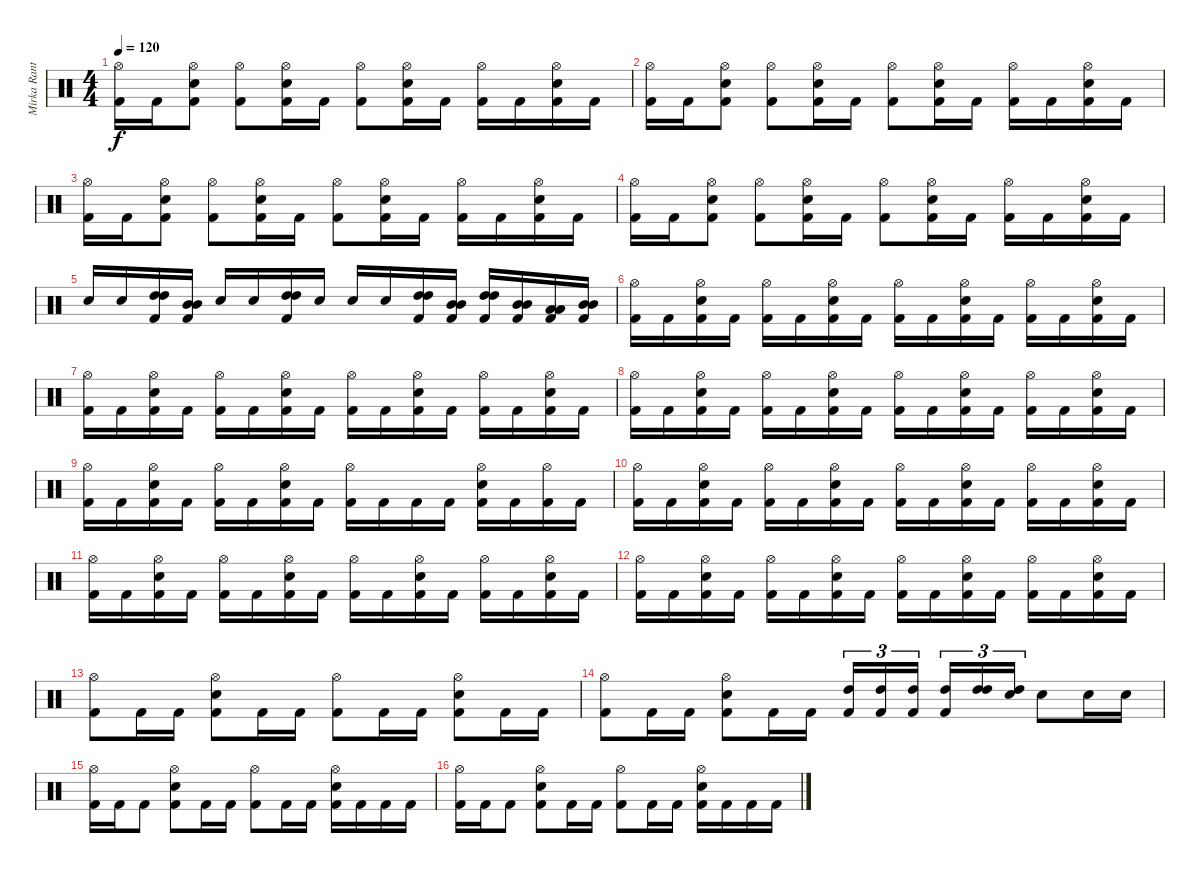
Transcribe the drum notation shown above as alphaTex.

\track ("Mirka Rantanen" "Mirka Rant") {instrument percussion}
\staff {score}
\articulation defaults
\ts (4 4)
\tempo 120
\clef neutral
\ks c
("Hi-Hat (open)" "Kick (hit) 2").16{dy f} "Kick (hit) 2".16 ("Snare (hit) 2" "Hi-Hat (open)" "Kick (hit) 2").8 ("Hi-Hat (open)" "Kick (hit) 2").8 ("Snare (hit) 2" "Hi-Hat (open)" "Kick (hit) 2").16 "Kick (hit) 2".16 ("Hi-Hat (open)" "Kick (hit) 2").8 ("Snare (hit) 2" "Hi-Hat (open)" "Kick (hit) 2").16 "Kick (hit) 2".16 ("Hi-Hat (open)" "Kick (hit) 2").16 "Kick (hit) 2".16 ("Snare (hit) 2" "Hi-Hat (open)" "Kick (hit) 2").16 "Kick (hit) 2".16 |
("Hi-Hat (open)" "Kick (hit) 2").16 "Kick (hit) 2".16 ("Snare (hit) 2" "Hi-Hat (open)" "Kick (hit) 2").8 ("Hi-Hat (open)" "Kick (hit) 2").8 ("Snare (hit) 2" "Hi-Hat (open)" "Kick (hit) 2").16 "Kick (hit) 2".16 ("Hi-Hat (open)" "Kick (hit) 2").8 ("Snare (hit) 2" "Hi-Hat (open)" "Kick (hit) 2").16 "Kick (hit) 2".16 ("Hi-Hat (open)" "Kick (hit) 2").16 "Kick (hit) 2".16 ("Snare (hit) 2" "Hi-Hat (open)" "Kick (hit) 2").16 "Kick (hit) 2".16 |
("Hi-Hat (open)" "Kick (hit) 2").16 "Kick (hit) 2".16 ("Snare (hit) 2" "Hi-Hat (open)" "Kick (hit) 2").8 ("Hi-Hat (open)" "Kick (hit) 2").8 ("Snare (hit) 2" "Hi-Hat (open)" "Kick (hit) 2").16 "Kick (hit) 2".16 ("Hi-Hat (open)" "Kick (hit) 2").8 ("Snare (hit) 2" "Hi-Hat (open)" "Kick (hit) 2").16 "Kick (hit) 2".16 ("Hi-Hat (open)" "Kick (hit) 2").16 "Kick (hit) 2".16 ("Snare (hit) 2" "Hi-Hat (open)" "Kick (hit) 2").16 "Kick (hit) 2".16 |
("Hi-Hat (open)" "Kick (hit) 2").16 "Kick (hit) 2".16 ("Snare (hit) 2" "Hi-Hat (open)" "Kick (hit) 2").8 ("Hi-Hat (open)" "Kick (hit) 2").8 ("Snare (hit) 2" "Hi-Hat (open)" "Kick (hit) 2").16 "Kick (hit) 2".16 ("Hi-Hat (open)" "Kick (hit) 2").8 ("Snare (hit) 2" "Hi-Hat (open)" "Kick (hit) 2").16 "Kick (hit) 2".16 ("Hi-Hat (open)" "Kick (hit) 2").16 "Kick (hit) 2".16 ("Snare (hit) 2" "Hi-Hat (open)" "Kick (hit) 2").16 "Kick (hit) 2".16 |
"Snare (hit) 2".16 "Snare (hit) 2".16 ("High Tom (hit)" "High Tom (hit)" "Kick (hit) 2").16 ("Mid Tom (hit)" "Mid Tom (hit)" "Kick (hit) 2").16 "Snare (hit) 2".16 "Snare (hit) 2".16 ("High Tom (hit)" "High Tom (hit)" "Kick (hit) 2").16 "Snare (hit) 2".16 "Snare (hit) 2".16 "Snare (hit) 2".16 ("High Tom (hit)" "High Tom (hit)" "Kick (hit) 2").16 ("Mid Tom (hit)" "Mid Tom (hit)" "Kick (hit) 2").16 ("High Tom (hit)" "High Tom (hit)" "Kick (hit) 2").16 ("Mid Tom (hit)" "Mid Tom (hit)" "Kick (hit) 2").16 ("Low Tom (hit)" "Low Tom (hit)" "Kick (hit) 2").16 ("Mid Tom (hit)" "Mid Tom (hit)" "Kick (hit) 2").16 |
("Hi-Hat (open)" "Kick (hit) 2").16 "Kick (hit) 2".16 ("Hi-Hat (open)" "Snare (hit) 2" "Kick (hit) 2").16 "Kick (hit) 2".16 ("Hi-Hat (open)" "Kick (hit) 2").16 "Kick (hit) 2".16 ("Hi-Hat (open)" "Snare (hit) 2" "Kick (hit) 2").16 "Kick (hit) 2".16 ("Hi-Hat (open)" "Kick (hit) 2").16 "Kick (hit) 2".16 ("Hi-Hat (open)" "Snare (hit) 2" "Kick (hit) 2").16 "Kick (hit) 2".16 ("Hi-Hat (open)" "Kick (hit) 2").16 "Kick (hit) 2".16 ("Hi-Hat (open)" "Snare (hit) 2" "Kick (hit) 2").16 "Kick (hit) 2".16 |
("Hi-Hat (open)" "Kick (hit) 2").16 "Kick (hit) 2".16 ("Hi-Hat (open)" "Snare (hit) 2" "Kick (hit) 2").16 "Kick (hit) 2".16 ("Hi-Hat (open)" "Kick (hit) 2").16 "Kick (hit) 2".16 ("Hi-Hat (open)" "Snare (hit) 2" "Kick (hit) 2").16 "Kick (hit) 2".16 ("Hi-Hat (open)" "Kick (hit) 2").16 "Kick (hit) 2".16 ("Hi-Hat (open)" "Snare (hit) 2" "Kick (hit) 2").16 "Kick (hit) 2".16 ("Hi-Hat (open)" "Kick (hit) 2").16 "Kick (hit) 2".16 ("Hi-Hat (open)" "Snare (hit) 2" "Kick (hit) 2").16 "Kick (hit) 2".16 |
("Hi-Hat (open)" "Kick (hit) 2").16 "Kick (hit) 2".16 ("Hi-Hat (open)" "Snare (hit) 2" "Kick (hit) 2").16 "Kick (hit) 2".16 ("Hi-Hat (open)" "Kick (hit) 2").16 "Kick (hit) 2".16 ("Hi-Hat (open)" "Snare (hit) 2" "Kick (hit) 2").16 "Kick (hit) 2".16 ("Hi-Hat (open)" "Kick (hit) 2").16 "Kick (hit) 2".16 ("Hi-Hat (open)" "Snare (hit) 2" "Kick (hit) 2").16 "Kick (hit) 2".16 ("Hi-Hat (open)" "Kick (hit) 2").16 "Kick (hit) 2".16 ("Hi-Hat (open)" "Snare (hit) 2" "Kick (hit) 2").16 "Kick (hit) 2".16 |
("Hi-Hat (open)" "Kick (hit) 2").16 "Kick (hit) 2".16 ("Hi-Hat (open)" "Snare (hit) 2" "Kick (hit) 2").16 "Kick (hit) 2".16 ("Hi-Hat (open)" "Kick (hit) 2").16 "Kick (hit) 2".16 ("Hi-Hat (open)" "Snare (hit) 2" "Kick (hit) 2").16 "Kick (hit) 2".16 ("Hi-Hat (open)" "Kick (hit) 2").16 "Kick (hit) 2".16 "Kick (hit) 2".16 "Kick (hit) 2".16 ("Hi-Hat (open)" "Snare (hit) 2" "Kick (hit) 2").16 "Kick (hit) 2".16 ("Hi-Hat (open)" "Kick (hit) 2").16 "Kick (hit) 2".16 |
("Hi-Hat (open)" "Kick (hit) 2").16 "Kick (hit) 2".16 ("Hi-Hat (open)" "Snare (hit) 2" "Kick (hit) 2").16 "Kick (hit) 2".16 ("Hi-Hat (open)" "Kick (hit) 2").16 "Kick (hit) 2".16 ("Hi-Hat (open)" "Snare (hit) 2" "Kick (hit) 2").16 "Kick (hit) 2".16 ("Hi-Hat (open)" "Kick (hit) 2").16 "Kick (hit) 2".16 ("Hi-Hat (open)" "Snare (hit) 2" "Kick (hit) 2").16 "Kick (hit) 2".16 ("Hi-Hat (open)" "Kick (hit) 2").16 "Kick (hit) 2".16 ("Hi-Hat (open)" "Snare (hit) 2" "Kick (hit) 2").16 "Kick (hit) 2".16 |
("Hi-Hat (open)" "Kick (hit) 2").16 "Kick (hit) 2".16 ("Hi-Hat (open)" "Snare (hit) 2" "Kick (hit) 2").16 "Kick (hit) 2".16 ("Hi-Hat (open)" "Kick (hit) 2").16 "Kick (hit) 2".16 ("Hi-Hat (open)" "Snare (hit) 2" "Kick (hit) 2").16 "Kick (hit) 2".16 ("Hi-Hat (open)" "Kick (hit) 2").16 "Kick (hit) 2".16 ("Hi-Hat (open)" "Snare (hit) 2" "Kick (hit) 2").16 "Kick (hit) 2".16 ("Hi-Hat (open)" "Kick (hit) 2").16 "Kick (hit) 2".16 ("Hi-Hat (open)" "Snare (hit) 2" "Kick (hit) 2").16 "Kick (hit) 2".16 |
("Hi-Hat (open)" "Kick (hit) 2").16 "Kick (hit) 2".16 ("Hi-Hat (open)" "Snare (hit) 2" "Kick (hit) 2").16 "Kick (hit) 2".16 ("Hi-Hat (open)" "Kick (hit) 2").16 "Kick (hit) 2".16 ("Hi-Hat (open)" "Snare (hit) 2" "Kick (hit) 2").16 "Kick (hit) 2".16 ("Hi-Hat (open)" "Kick (hit) 2").16 "Kick (hit) 2".16 ("Hi-Hat (open)" "Snare (hit) 2" "Kick (hit) 2").16 "Kick (hit) 2".16 ("Hi-Hat (open)" "Kick (hit) 2").16 "Kick (hit) 2".16 ("Hi-Hat (open)" "Snare (hit) 2" "Kick (hit) 2").16 "Kick (hit) 2".16 |
("Hi-Hat (open)" "Kick (hit) 2").8 "Kick (hit) 2".16 "Kick (hit) 2".16 ("Hi-Hat (open)" "Snare (hit) 2" "Kick (hit) 2").8 "Kick (hit) 2".16 "Kick (hit) 2".16 ("Hi-Hat (open)" "Kick (hit) 2").8 "Kick (hit) 2".16 "Kick (hit) 2".16 ("Hi-Hat (open)" "Snare (hit) 2" "Kick (hit) 2").8 "Kick (hit) 2".16 "Kick (hit) 2".16 |
("Hi-Hat (open)" "Kick (hit) 2").8 "Kick (hit) 2".16 "Kick (hit) 2".16 ("Hi-Hat (open)" "Snare (hit) 2" "Kick (hit) 2").8 "Kick (hit) 2".16 "Kick (hit) 2".16 ("Kick (hit) 2" "High Tom (hit)").16{tu (3 2)} ("Kick (hit) 2" "High Tom (hit)").16{tu (3 2)} ("Kick (hit) 2" "High Tom (hit)").16{tu (3 2)} ("Kick (hit) 2" "High Tom (hit)").16{tu (3 2)} ("High Tom (hit)" "High Tom (hit)").16{tu (3 2)} ("High Tom (hit)" "Snare (hit) 2").16{tu (3 2)} "Snare (hit) 2".8 "Snare (hit) 2".16 "Snare (hit) 2".16 |
("Hi-Hat (open)" "Kick (hit) 2").16 "Kick (hit) 2".16 "Kick (hit) 2".8 ("Hi-Hat (open)" "Snare (hit) 2" "Kick (hit) 2").8 "Kick (hit) 2".16 "Kick (hit) 2".16 ("Hi-Hat (open)" "Kick (hit) 2").8 "Kick (hit) 2".16 "Kick (hit) 2".16 ("Snare (hit) 2" "Hi-Hat (open)" "Kick (hit) 2").16 "Kick (hit) 2".16 "Kick (hit) 2".16 "Kick (hit) 2".16 |
("Hi-Hat (open)" "Kick (hit) 2").16 "Kick (hit) 2".16 "Kick (hit) 2".8 ("Hi-Hat (open)" "Snare (hit) 2" "Kick (hit) 2").8 "Kick (hit) 2".16 "Kick (hit) 2".16 ("Hi-Hat (open)" "Kick (hit) 2").8 "Kick (hit) 2".16 "Kick (hit) 2".16 ("Snare (hit) 2" "Hi-Hat (open)" "Kick (hit) 2").16 "Kick (hit) 2".16 "Kick (hit) 2".16 "Kick (hit) 2".16
